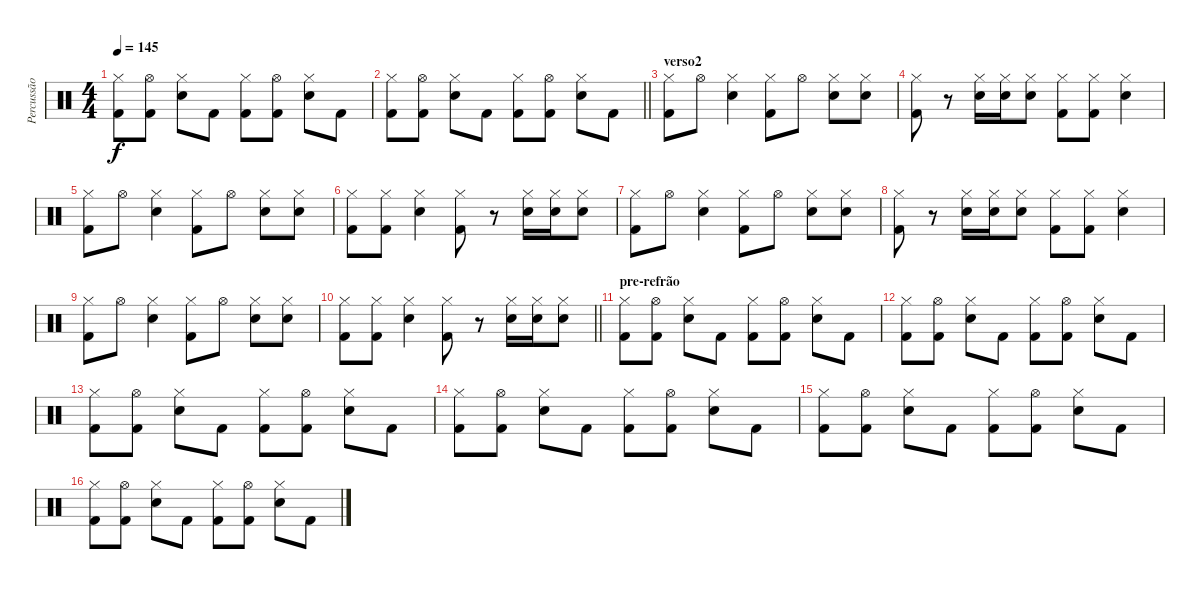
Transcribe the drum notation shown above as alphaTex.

\track ("Percussão" "Percussão") {instrument percussion}
\staff {score}
\articulation defaults
\ts (4 4)
\tempo 145
\clef neutral
\ks c
("Hi-Hat (closed)" "Kick (hit) 2").8{dy f} ("Hi-Hat (open)" "Kick (hit) 2").8 ("Hi-Hat (closed)" "Snare (hit) 2").8 "Kick (hit) 2".8 ("Hi-Hat (closed)" "Kick (hit) 2").8 ("Hi-Hat (open)" "Kick (hit) 2").8 ("Hi-Hat (closed)" "Snare (hit) 2").8 "Kick (hit) 2".8 |
\barLineRight lightlight
("Hi-Hat (closed)" "Kick (hit) 2").8 ("Hi-Hat (open)" "Kick (hit) 2").8 ("Hi-Hat (closed)" "Snare (hit) 2").8 "Kick (hit) 2".8 ("Hi-Hat (closed)" "Kick (hit) 2").8 ("Hi-Hat (open)" "Kick (hit) 2").8 ("Hi-Hat (closed)" "Snare (hit) 2").8 "Kick (hit) 2".8 |
\section ("" "verso2")
("Hi-Hat (closed)" "Kick (hit) 2").8 "Hi-Hat (open)".8 ("Hi-Hat (closed)" "Snare (hit) 2").4 ("Hi-Hat (closed)" "Kick (hit) 2").8 "Hi-Hat (open)".8 ("Hi-Hat (closed)" "Snare (hit) 2").8 ("Hi-Hat (closed)" "Snare (hit) 2").8 |
("Hi-Hat (closed)" "Kick (hit) 2").8 r.8 ("Hi-Hat (closed)" "Snare (hit) 2").16 ("Hi-Hat (closed)" "Snare (hit) 2").16 ("Hi-Hat (closed)" "Snare (hit) 2").8 ("Hi-Hat (closed)" "Kick (hit) 2").8 ("Hi-Hat (closed)" "Kick (hit) 2").8 ("Hi-Hat (closed)" "Snare (hit) 2").4 |
("Hi-Hat (closed)" "Kick (hit) 2").8 "Hi-Hat (open)".8 ("Hi-Hat (closed)" "Snare (hit) 2").4 ("Hi-Hat (closed)" "Kick (hit) 2").8 "Hi-Hat (open)".8 ("Hi-Hat (closed)" "Snare (hit) 2").8 ("Hi-Hat (closed)" "Snare (hit) 2").8 |
("Hi-Hat (closed)" "Kick (hit) 2").8 ("Hi-Hat (closed)" "Kick (hit) 2").8 ("Hi-Hat (closed)" "Snare (hit) 2").4 ("Hi-Hat (closed)" "Kick (hit) 2").8 r.8 ("Hi-Hat (closed)" "Snare (hit) 2").16 ("Hi-Hat (closed)" "Snare (hit) 2").16 ("Hi-Hat (closed)" "Snare (hit) 2").8 |
("Hi-Hat (closed)" "Kick (hit) 2").8 "Hi-Hat (open)".8 ("Hi-Hat (closed)" "Snare (hit) 2").4 ("Hi-Hat (closed)" "Kick (hit) 2").8 "Hi-Hat (open)".8 ("Hi-Hat (closed)" "Snare (hit) 2").8 ("Hi-Hat (closed)" "Snare (hit) 2").8 |
("Hi-Hat (closed)" "Kick (hit) 2").8 r.8 ("Hi-Hat (closed)" "Snare (hit) 2").16 ("Hi-Hat (closed)" "Snare (hit) 2").16 ("Hi-Hat (closed)" "Snare (hit) 2").8 ("Hi-Hat (closed)" "Kick (hit) 2").8 ("Hi-Hat (closed)" "Kick (hit) 2").8 ("Hi-Hat (closed)" "Snare (hit) 2").4 |
("Hi-Hat (closed)" "Kick (hit) 2").8 "Hi-Hat (open)".8 ("Hi-Hat (closed)" "Snare (hit) 2").4 ("Hi-Hat (closed)" "Kick (hit) 2").8 "Hi-Hat (open)".8 ("Hi-Hat (closed)" "Snare (hit) 2").8 ("Hi-Hat (closed)" "Snare (hit) 2").8 |
\barLineRight lightlight
("Hi-Hat (closed)" "Kick (hit) 2").8 ("Hi-Hat (closed)" "Kick (hit) 2").8 ("Hi-Hat (closed)" "Snare (hit) 2").4 ("Hi-Hat (closed)" "Kick (hit) 2").8 r.8 ("Hi-Hat (closed)" "Snare (hit) 2").16 ("Hi-Hat (closed)" "Snare (hit) 2").16 ("Hi-Hat (closed)" "Snare (hit) 2").8 |
\section ("" "pre-refrão")
("Hi-Hat (closed)" "Kick (hit) 2").8 ("Hi-Hat (open)" "Kick (hit) 2").8 ("Hi-Hat (closed)" "Snare (hit) 2").8 "Kick (hit) 2".8 ("Hi-Hat (closed)" "Kick (hit) 2").8 ("Hi-Hat (open)" "Kick (hit) 2").8 ("Hi-Hat (closed)" "Snare (hit) 2").8 "Kick (hit) 2".8 |
("Hi-Hat (closed)" "Kick (hit) 2").8 ("Hi-Hat (open)" "Kick (hit) 2").8 ("Hi-Hat (closed)" "Snare (hit) 2").8 "Kick (hit) 2".8 ("Hi-Hat (closed)" "Kick (hit) 2").8 ("Hi-Hat (open)" "Kick (hit) 2").8 ("Hi-Hat (closed)" "Snare (hit) 2").8 "Kick (hit) 2".8 |
("Hi-Hat (closed)" "Kick (hit) 2").8 ("Hi-Hat (open)" "Kick (hit) 2").8 ("Hi-Hat (closed)" "Snare (hit) 2").8 "Kick (hit) 2".8 ("Hi-Hat (closed)" "Kick (hit) 2").8 ("Hi-Hat (open)" "Kick (hit) 2").8 ("Hi-Hat (closed)" "Snare (hit) 2").8 "Kick (hit) 2".8 |
("Hi-Hat (closed)" "Kick (hit) 2").8 ("Hi-Hat (open)" "Kick (hit) 2").8 ("Hi-Hat (closed)" "Snare (hit) 2").8 "Kick (hit) 2".8 ("Hi-Hat (closed)" "Kick (hit) 2").8 ("Hi-Hat (open)" "Kick (hit) 2").8 ("Hi-Hat (closed)" "Snare (hit) 2").8 "Kick (hit) 2".8 |
("Hi-Hat (closed)" "Kick (hit) 2").8 ("Hi-Hat (open)" "Kick (hit) 2").8 ("Hi-Hat (closed)" "Snare (hit) 2").8 "Kick (hit) 2".8 ("Hi-Hat (closed)" "Kick (hit) 2").8 ("Hi-Hat (open)" "Kick (hit) 2").8 ("Hi-Hat (closed)" "Snare (hit) 2").8 "Kick (hit) 2".8 |
("Hi-Hat (closed)" "Kick (hit) 2").8 ("Hi-Hat (open)" "Kick (hit) 2").8 ("Hi-Hat (closed)" "Snare (hit) 2").8 "Kick (hit) 2".8 ("Hi-Hat (closed)" "Kick (hit) 2").8 ("Hi-Hat (open)" "Kick (hit) 2").8 ("Hi-Hat (closed)" "Snare (hit) 2").8 "Kick (hit) 2".8
